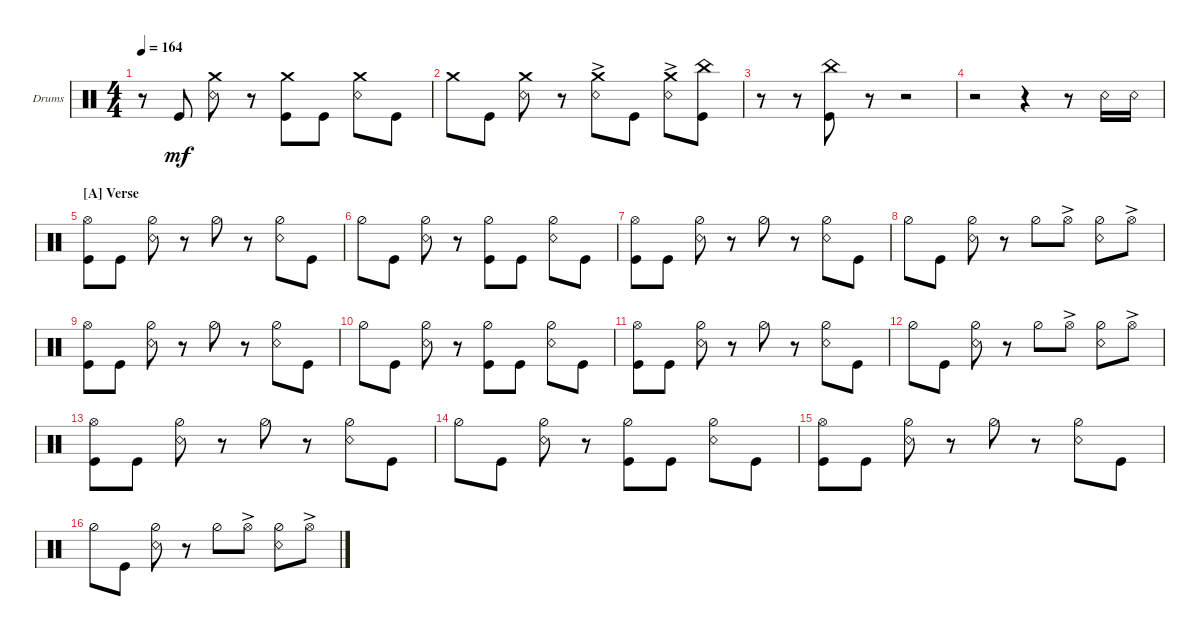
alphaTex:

\defaultSystemsLayout 4
\bracketExtendMode groupsimilarinstruments
\firstSystemTrackNameOrientation horizontal
\otherSystemsTrackNameOrientation horizontal
\track ("Drums" "Drums") {instrument percussion}
\staff {score}
\articulation defaults
\ts (4 4)
\tempo 164
\clef neutral
\scale
0.333333
\ks c
r.8{dy mf} "Kick (hit)".8 ("Snare (rim shot)" "Crash medium (hit)").8 r.8 ("Kick (hit)" "Crash medium (hit)").8 "Kick (hit)".8 ("Snare (rim shot)" "Crash medium (hit)").8 "Kick (hit)".8 |
\scale
0.333333 "Crash medium (hit)".8 "Kick (hit)".8 ("Snare (rim shot)" "Crash medium (hit)").8 r.8 ("Snare (rim shot)"{ac} "Crash medium (hit)").8 "Kick (hit)".8 ("Snare (rim shot)"{ac} "Crash medium (hit)").8 ("Kick (hit)" "China (hit)").8 |
\scale
0.333333 r.8 r.8 ("China (hit)" "Kick (hit)").8 r.8 r.2 |
\scale
0.333333 r.2 r.4 r.8 "Snare (rim shot)".16 "Snare (rim shot)".16 |
\section ("A" "Verse")
\scale
0.333333 ("Kick (hit)" "Hi-Hat (open)").8 "Kick (hit)".8 ("Snare (rim shot)" "Hi-Hat (half)").8 r.8 "Hi-Hat (half)".8 r.8 ("Snare (rim shot)" "Hi-Hat (half)").8 "Kick (hit)".8 |
\scale
0.333333 "Hi-Hat (half)".8 "Kick (hit)".8 ("Snare (rim shot)" "Hi-Hat (half)").8 r.8 ("Kick (hit)" "Hi-Hat (half)").8 "Kick (hit)".8 ("Snare (rim shot)" "Hi-Hat (half)").8 "Kick (hit)".8 |
\scale
0.333333 ("Kick (hit)" "Hi-Hat (open)").8 "Kick (hit)".8 ("Snare (rim shot)" "Hi-Hat (half)").8 r.8 "Hi-Hat (half)".8 r.8 ("Snare (rim shot)" "Hi-Hat (half)").8 "Kick (hit)".8 |
\scale
0.333333 "Hi-Hat (half)".8 "Kick (hit)".8 ("Snare (rim shot)" "Hi-Hat (half)").8 r.8 "Hi-Hat (half)".8 "Hi-Hat (open)"{ac}.8 ("Hi-Hat (half)" "Snare (rim shot)").8 "Hi-Hat (open)"{ac}.8 |
\scale
0.333333 ("Kick (hit)" "Hi-Hat (open)").8 "Kick (hit)".8 ("Snare (rim shot)" "Hi-Hat (half)").8 r.8 "Hi-Hat (half)".8 r.8 ("Snare (rim shot)" "Hi-Hat (half)").8 "Kick (hit)".8 |
\scale
0.333333 "Hi-Hat (half)".8 "Kick (hit)".8 ("Snare (rim shot)" "Hi-Hat (half)").8 r.8 ("Kick (hit)" "Hi-Hat (half)").8 "Kick (hit)".8 ("Snare (rim shot)" "Hi-Hat (half)").8 "Kick (hit)".8 |
\scale
0.333333 ("Kick (hit)" "Hi-Hat (open)").8 "Kick (hit)".8 ("Snare (rim shot)" "Hi-Hat (half)").8 r.8 "Hi-Hat (half)".8 r.8 ("Snare (rim shot)" "Hi-Hat (half)").8 "Kick (hit)".8 |
\scale
0.333333 "Hi-Hat (half)".8 "Kick (hit)".8 ("Snare (rim shot)" "Hi-Hat (half)").8 r.8 "Hi-Hat (half)".8 "Hi-Hat (open)"{ac}.8 ("Hi-Hat (half)" "Snare (rim shot)").8 "Hi-Hat (open)"{ac}.8 |
\scale
0.333333 ("Kick (hit)" "Hi-Hat (open)").8 "Kick (hit)".8 ("Snare (rim shot)" "Hi-Hat (half)").8 r.8 "Hi-Hat (half)".8 r.8 ("Snare (rim shot)" "Hi-Hat (half)").8 "Kick (hit)".8 |
\scale
0.333333 "Hi-Hat (half)".8 "Kick (hit)".8 ("Snare (rim shot)" "Hi-Hat (half)").8 r.8 ("Kick (hit)" "Hi-Hat (half)").8 "Kick (hit)".8 ("Snare (rim shot)" "Hi-Hat (half)").8 "Kick (hit)".8 |
\scale
0.333333 ("Kick (hit)" "Hi-Hat (open)").8 "Kick (hit)".8 ("Snare (rim shot)" "Hi-Hat (half)").8 r.8 "Hi-Hat (half)".8 r.8 ("Snare (rim shot)" "Hi-Hat (half)").8 "Kick (hit)".8 |
\scale
0.333333 "Hi-Hat (half)".8 "Kick (hit)".8 ("Snare (rim shot)" "Hi-Hat (half)").8 r.8 "Hi-Hat (half)".8 "Hi-Hat (open)"{ac}.8 ("Hi-Hat (half)" "Snare (rim shot)").8 "Hi-Hat (open)"{ac}.8
